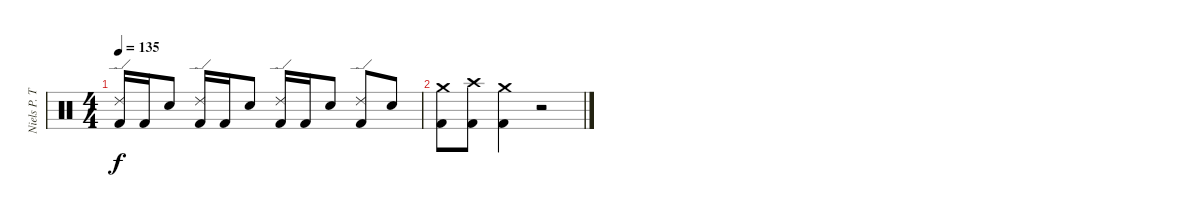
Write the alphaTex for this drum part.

\track ("Niels P. Thogersen" "Niels P. T") {instrument percussion}
\staff {score}
\articulation defaults
\ts (4 4)
\tempo 135
\clef neutral
\ks c
("Ride (edge) 2" "Kick (hit) 2").16{dy f} "Kick (hit) 2".16 "Snare (hit) 2".8 ("Ride (edge) 2" "Kick (hit) 2").16 "Kick (hit) 2".16 "Snare (hit) 2".8 ("Ride (edge) 2" "Kick (hit) 2").16 "Kick (hit) 2".16 "Snare (hit) 2".8 ("Ride (edge) 2" "Kick (hit) 2").8 "Snare (hit) 2".8 |
("Crash medium (hit)" "Kick (hit) 2").8 ("Crash high (hit)" "Kick (hit) 2").8 ("Crash medium (hit)" "Kick (hit) 2").4 r.2
